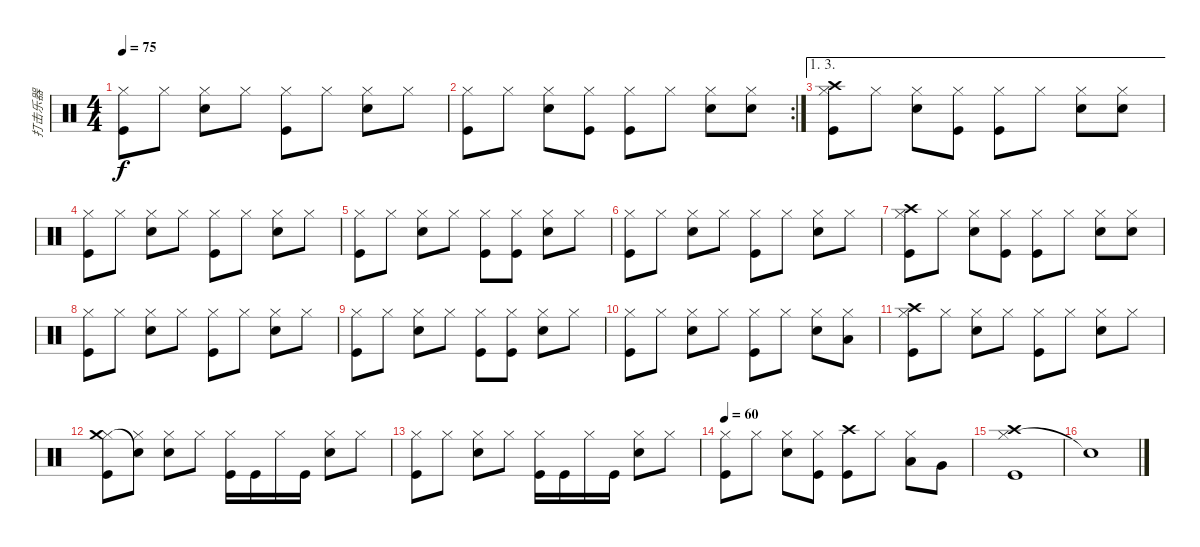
\track ("打击乐器" "打击乐器") {instrument percussion}
\staff {score}
\articulation defaults
\ts (4 4)
\tempo 75
\clef neutral
\ks c
("Hi-Hat (closed)" "Kick (hit)").8{dy f} "Hi-Hat (closed)".8 ("Hi-Hat (closed)" "Electric Snare (hit)").8 "Hi-Hat (closed)".8 ("Hi-Hat (closed)" "Kick (hit)").8 "Hi-Hat (closed)".8 ("Hi-Hat (closed)" "Electric Snare (hit)").8 "Hi-Hat (closed)".8 |
\rc 2
("Hi-Hat (closed)" "Kick (hit)").8 "Hi-Hat (closed)".8 ("Hi-Hat (closed)" "Electric Snare (hit)").8 ("Hi-Hat (closed)" "Kick (hit)").8 ("Hi-Hat (closed)" "Kick (hit)").8 "Hi-Hat (closed)".8 ("Hi-Hat (closed)" "Electric Snare (hit)").8 ("Hi-Hat (closed)" "Electric Snare (hit)").8 |
\ae (1 3)
("Hi-Hat (closed)" "Crash high (hit)" "Kick (hit)").8 "Hi-Hat (closed)".8 ("Hi-Hat (closed)" "Electric Snare (hit)").8 ("Hi-Hat (closed)" "Kick (hit)").8 ("Hi-Hat (closed)" "Kick (hit)").8 "Hi-Hat (closed)".8 ("Hi-Hat (closed)" "Electric Snare (hit)").8 ("Hi-Hat (closed)" "Electric Snare (hit)").8 |
("Hi-Hat (closed)" "Kick (hit)").8 "Hi-Hat (closed)".8 ("Hi-Hat (closed)" "Electric Snare (hit)").8 "Hi-Hat (closed)".8 ("Hi-Hat (closed)" "Kick (hit)").8 "Hi-Hat (closed)".8 ("Hi-Hat (closed)" "Electric Snare (hit)").8 "Hi-Hat (closed)".8 |
("Hi-Hat (closed)" "Kick (hit)").8 "Hi-Hat (closed)".8 ("Hi-Hat (closed)" "Electric Snare (hit)").8 "Hi-Hat (closed)".8 ("Hi-Hat (closed)" "Kick (hit)").8 ("Hi-Hat (closed)" "Kick (hit)").8 ("Hi-Hat (closed)" "Electric Snare (hit)").8 "Hi-Hat (closed)".8 |
("Hi-Hat (closed)" "Kick (hit)").8 "Hi-Hat (closed)".8 ("Hi-Hat (closed)" "Electric Snare (hit)").8 "Hi-Hat (closed)".8 ("Hi-Hat (closed)" "Kick (hit)").8 "Hi-Hat (closed)".8 ("Hi-Hat (closed)" "Electric Snare (hit)").8 "Hi-Hat (closed)".8 |
("Hi-Hat (closed)" "Crash high (hit)" "Kick (hit)").8 "Hi-Hat (closed)".8 ("Hi-Hat (closed)" "Electric Snare (hit)").8 ("Hi-Hat (closed)" "Kick (hit)").8 ("Hi-Hat (closed)" "Kick (hit)").8 "Hi-Hat (closed)".8 ("Hi-Hat (closed)" "Electric Snare (hit)").8 ("Hi-Hat (closed)" "Electric Snare (hit)").8 |
("Hi-Hat (closed)" "Kick (hit)").8 "Hi-Hat (closed)".8 ("Hi-Hat (closed)" "Electric Snare (hit)").8 "Hi-Hat (closed)".8 ("Hi-Hat (closed)" "Kick (hit)").8 "Hi-Hat (closed)".8 ("Hi-Hat (closed)" "Electric Snare (hit)").8 "Hi-Hat (closed)".8 |
("Hi-Hat (closed)" "Kick (hit)").8 "Hi-Hat (closed)".8 ("Hi-Hat (closed)" "Electric Snare (hit)").8 "Hi-Hat (closed)".8 ("Hi-Hat (closed)" "Kick (hit)").8 ("Hi-Hat (closed)" "Kick (hit)").8 ("Hi-Hat (closed)" "Electric Snare (hit)").8 "Hi-Hat (closed)".8 |
("Hi-Hat (closed)" "Kick (hit)").8 "Hi-Hat (closed)".8 ("Hi-Hat (closed)" "Electric Snare (hit)").8 "Hi-Hat (closed)".8 ("Hi-Hat (closed)" "Kick (hit)").8 "Hi-Hat (closed)".8 ("Hi-Hat (closed)" "Electric Snare (hit)").8 ("Hi-Hat (closed)" "Low Tom (hit)").8 |
("Hi-Hat (closed)" "Crash high (hit)" "Kick (hit)").8 "Hi-Hat (closed)".8 ("Hi-Hat (closed)" "Electric Snare (hit)").8 "Hi-Hat (closed)".8 ("Hi-Hat (closed)" "Kick (hit)").8 "Hi-Hat (closed)".8 ("Hi-Hat (closed)" "Electric Snare (hit)").8 "Hi-Hat (closed)".8 |
("Hi-Hat (closed)" "Crash medium (hit)" "Kick (hit)").8 ("Hi-Hat (closed)" "Snare (hit)"{t}).8 ("Hi-Hat (closed)" "Electric Snare (hit)").8 "Hi-Hat (closed)".8 ("Hi-Hat (closed)" "Kick (hit)").16 "Kick (hit)".16 "Hi-Hat (closed)".16 "Kick (hit)".16 ("Hi-Hat (closed)" "Electric Snare (hit)").8 "Hi-Hat (closed)".8 |
("Hi-Hat (closed)" "Kick (hit)").8 "Hi-Hat (closed)".8 ("Hi-Hat (closed)" "Electric Snare (hit)").8 "Hi-Hat (closed)".8 ("Hi-Hat (closed)" "Kick (hit)").16 "Kick (hit)".16 "Hi-Hat (closed)".16 "Kick (hit)".16 ("Hi-Hat (closed)" "Electric Snare (hit)").8 "Hi-Hat (closed)".8 |
\tempo 60
("Hi-Hat (closed)" "Kick (hit)").8 "Hi-Hat (closed)".8 ("Hi-Hat (closed)" "Electric Snare (hit)").8 ("Hi-Hat (closed)" "Kick (hit)").8 ("Crash high (hit)" "Kick (hit)").8 "Hi-Hat (closed)".8 ("Hi-Hat (closed)" "Low Tom (hit)").8 "Very Low Tom (hit)".8 |
("Hi-Hat (closed)" "Crash high (hit)" "Kick (hit)").1 |
"Snare (hit)"{t}.1
